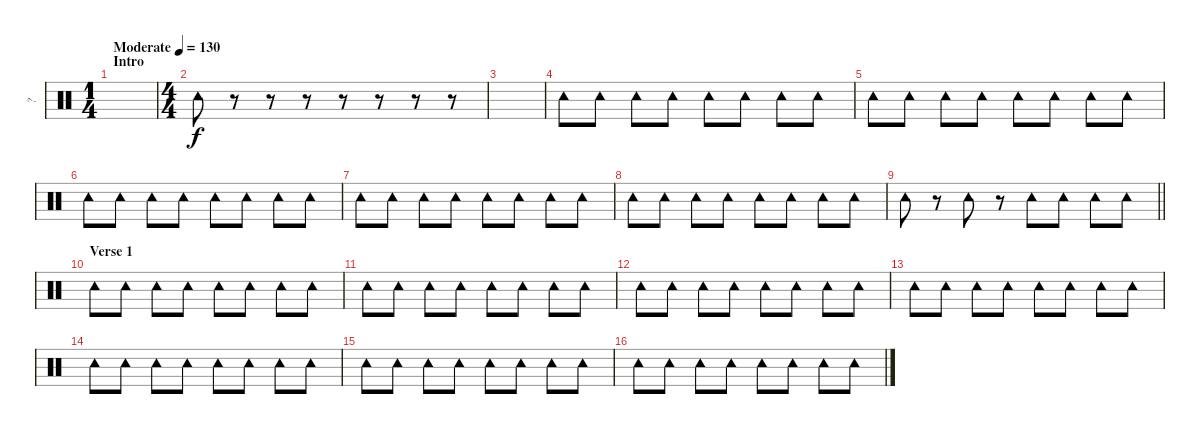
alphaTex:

\track ("?" "?") {instrument percussion}
\staff {score}
\articulation defaults
\ts (1 4)
\section ("" "Intro")
\tempo (130 "Moderate")
\clef neutral
\ks c
|
\ts (4 4)
"Tambourine (hit)".8 r.8 r.8 r.8 r.8 r.8 r.8 r.8 |
|
"Tambourine (hit)".8 "Tambourine (hit)".8 "Tambourine (hit)".8 "Tambourine (hit)".8 "Tambourine (hit)".8 "Tambourine (hit)".8 "Tambourine (hit)".8 "Tambourine (hit)".8 |
"Tambourine (hit)".8 "Tambourine (hit)".8 "Tambourine (hit)".8 "Tambourine (hit)".8 "Tambourine (hit)".8 "Tambourine (hit)".8 "Tambourine (hit)".8 "Tambourine (hit)".8 |
"Tambourine (hit)".8 "Tambourine (hit)".8 "Tambourine (hit)".8 "Tambourine (hit)".8 "Tambourine (hit)".8 "Tambourine (hit)".8 "Tambourine (hit)".8 "Tambourine (hit)".8 |
"Tambourine (hit)".8 "Tambourine (hit)".8 "Tambourine (hit)".8 "Tambourine (hit)".8 "Tambourine (hit)".8 "Tambourine (hit)".8 "Tambourine (hit)".8 "Tambourine (hit)".8 |
"Tambourine (hit)".8 "Tambourine (hit)".8 "Tambourine (hit)".8 "Tambourine (hit)".8 "Tambourine (hit)".8 "Tambourine (hit)".8 "Tambourine (hit)".8 "Tambourine (hit)".8 |
\barLineRight lightlight "Tambourine (hit)".8
r.8 "Tambourine (hit)".8 r.8 "Tambourine (hit)".8 "Tambourine (hit)".8 "Tambourine (hit)".8 "Tambourine (hit)".8 |
\section ("" "Verse 1")
"Tambourine (hit)".8 "Tambourine (hit)".8 "Tambourine (hit)".8 "Tambourine (hit)".8 "Tambourine (hit)".8 "Tambourine (hit)".8 "Tambourine (hit)".8 "Tambourine (hit)".8 |
"Tambourine (hit)".8 "Tambourine (hit)".8 "Tambourine (hit)".8 "Tambourine (hit)".8 "Tambourine (hit)".8 "Tambourine (hit)".8 "Tambourine (hit)".8 "Tambourine (hit)".8 |
"Tambourine (hit)".8 "Tambourine (hit)".8 "Tambourine (hit)".8 "Tambourine (hit)".8 "Tambourine (hit)".8 "Tambourine (hit)".8 "Tambourine (hit)".8 "Tambourine (hit)".8 |
"Tambourine (hit)".8 "Tambourine (hit)".8 "Tambourine (hit)".8 "Tambourine (hit)".8 "Tambourine (hit)".8 "Tambourine (hit)".8 "Tambourine (hit)".8 "Tambourine (hit)".8 |
"Tambourine (hit)".8 "Tambourine (hit)".8 "Tambourine (hit)".8 "Tambourine (hit)".8 "Tambourine (hit)".8 "Tambourine (hit)".8 "Tambourine (hit)".8 "Tambourine (hit)".8 |
"Tambourine (hit)".8 "Tambourine (hit)".8 "Tambourine (hit)".8 "Tambourine (hit)".8 "Tambourine (hit)".8 "Tambourine (hit)".8 "Tambourine (hit)".8 "Tambourine (hit)".8 |
"Tambourine (hit)".8 "Tambourine (hit)".8 "Tambourine (hit)".8 "Tambourine (hit)".8 "Tambourine (hit)".8 "Tambourine (hit)".8 "Tambourine (hit)".8 "Tambourine (hit)".8
